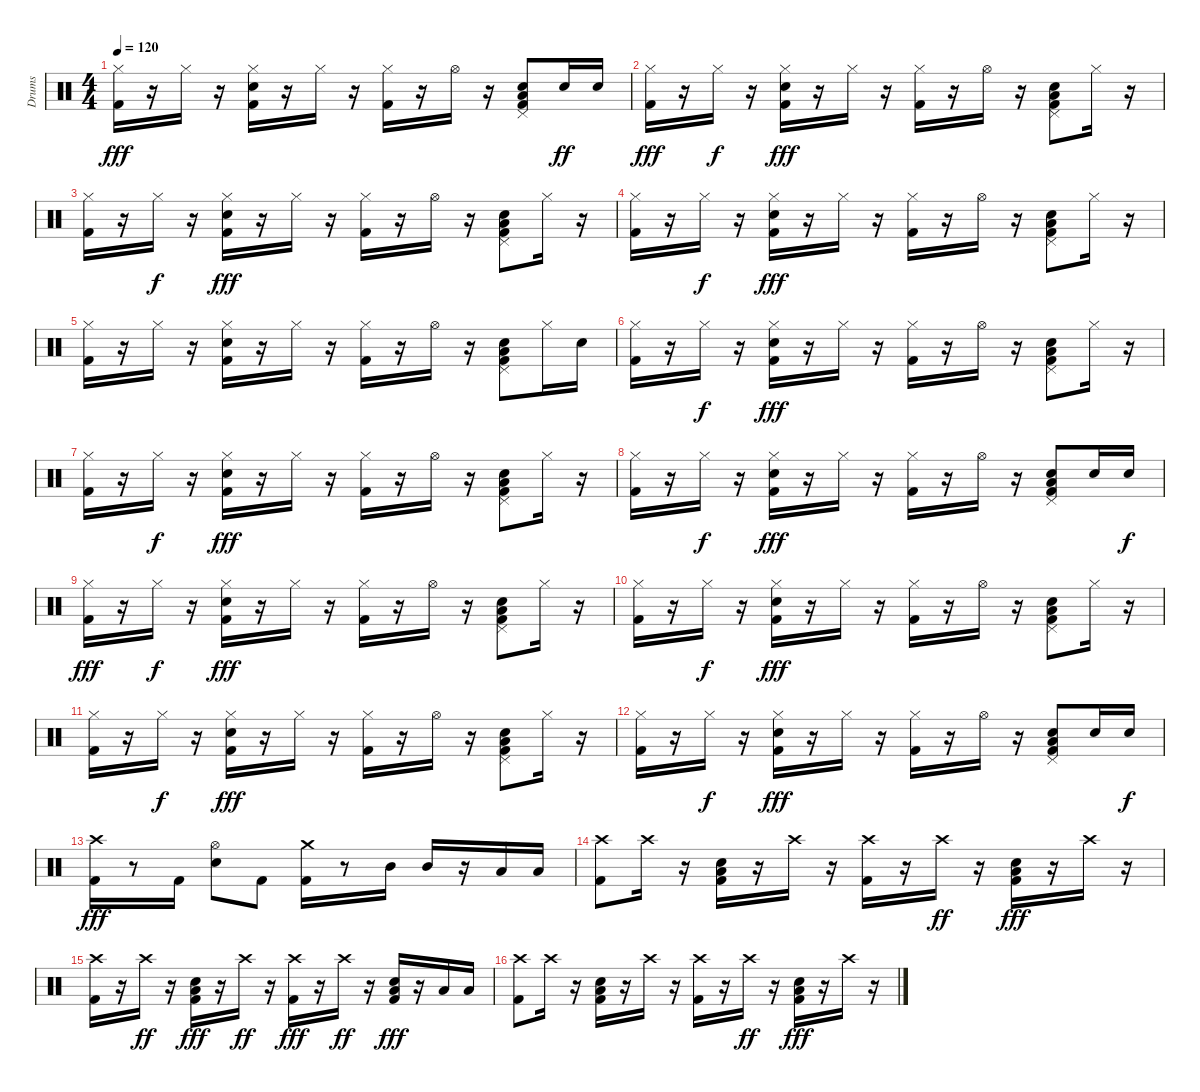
\track ("Drums" "Drums") {instrument percussion}
\staff {score}
\articulation defaults
\ts (4 4)
\tempo 120
\clef neutral
\ks c
("Kick (hit) 2" "Hi-Hat (closed)").16{dy fff} r.16 "Hi-Hat (closed)".16 r.16 ("Kick (hit) 2" "Snare (hit) 2" "Hi-Hat (closed)").16 r.16 "Hi-Hat (closed)".16 r.16 ("Hi-Hat (closed)" "Kick (hit) 2").16 r.16 "Hi-Hat (open)".16 r.16 ("Kick (hit) 2" "Pedal Hi-Hat (hit)" "Snare (hit) 2" "Low Floor Tom (hit)").8 "Snare (hit) 2".16{dy ff} "Snare (hit) 2".16 |
("Kick (hit) 2" "Hi-Hat (closed)").16{dy fff} r.16 "Hi-Hat (closed)".16{dy f} r.16 ("Kick (hit) 2" "Snare (hit) 2" "Hi-Hat (closed)").16{dy fff} r.16 "Hi-Hat (closed)".16 r.16 ("Hi-Hat (closed)" "Kick (hit) 2").16 r.16 "Hi-Hat (open)".16 r.16 ("Kick (hit) 2" "Pedal Hi-Hat (hit)" "Snare (hit) 2" "Low Floor Tom (hit)").8 "Hi-Hat (closed)".16 r.16 |
("Kick (hit) 2" "Hi-Hat (closed)").16 r.16 "Hi-Hat (closed)".16{dy f} r.16 ("Kick (hit) 2" "Snare (hit) 2" "Hi-Hat (closed)").16{dy fff} r.16 "Hi-Hat (closed)".16 r.16 ("Hi-Hat (closed)" "Kick (hit) 2").16 r.16 "Hi-Hat (open)".16 r.16 ("Kick (hit) 2" "Pedal Hi-Hat (hit)" "Snare (hit) 2" "Low Floor Tom (hit)").8 "Hi-Hat (closed)".16 r.16 |
("Kick (hit) 2" "Hi-Hat (closed)").16 r.16 "Hi-Hat (closed)".16{dy f} r.16 ("Kick (hit) 2" "Snare (hit) 2" "Hi-Hat (closed)").16{dy fff} r.16 "Hi-Hat (closed)".16 r.16 ("Hi-Hat (closed)" "Kick (hit) 2").16 r.16 "Hi-Hat (open)".16 r.16 ("Kick (hit) 2" "Pedal Hi-Hat (hit)" "Snare (hit) 2" "Low Floor Tom (hit)").8 "Hi-Hat (closed)".16 r.16 |
("Kick (hit) 2" "Hi-Hat (closed)").16 r.16 "Hi-Hat (closed)".16 r.16 ("Kick (hit) 2" "Snare (hit) 2" "Hi-Hat (closed)").16 r.16 "Hi-Hat (closed)".16 r.16 ("Hi-Hat (closed)" "Kick (hit) 2").16 r.16 "Hi-Hat (open)".16 r.16 ("Kick (hit) 2" "Pedal Hi-Hat (hit)" "Snare (hit) 2" "Low Floor Tom (hit)").8 "Hi-Hat (closed)".16 "Snare (hit) 2".16 |
("Kick (hit) 2" "Hi-Hat (closed)").16 r.16 "Hi-Hat (closed)".16{dy f} r.16 ("Kick (hit) 2" "Snare (hit) 2" "Hi-Hat (closed)").16{dy fff} r.16 "Hi-Hat (closed)".16 r.16 ("Hi-Hat (closed)" "Kick (hit) 2").16 r.16 "Hi-Hat (open)".16 r.16 ("Kick (hit) 2" "Pedal Hi-Hat (hit)" "Snare (hit) 2" "Low Floor Tom (hit)").8 "Hi-Hat (closed)".16 r.16 |
("Kick (hit) 2" "Hi-Hat (closed)").16 r.16 "Hi-Hat (closed)".16{dy f} r.16 ("Kick (hit) 2" "Snare (hit) 2" "Hi-Hat (closed)").16{dy fff} r.16 "Hi-Hat (closed)".16 r.16 ("Hi-Hat (closed)" "Kick (hit) 2").16 r.16 "Hi-Hat (open)".16 r.16 ("Kick (hit) 2" "Pedal Hi-Hat (hit)" "Snare (hit) 2" "Low Floor Tom (hit)").8 "Hi-Hat (closed)".16 r.16 |
("Kick (hit) 2" "Hi-Hat (closed)").16 r.16 "Hi-Hat (closed)".16{dy f} r.16 ("Kick (hit) 2" "Snare (hit) 2" "Hi-Hat (closed)").16{dy fff} r.16 "Hi-Hat (closed)".16 r.16 ("Hi-Hat (closed)" "Kick (hit) 2").16 r.16 "Hi-Hat (open)".16 r.16 ("Kick (hit) 2" "Pedal Hi-Hat (hit)" "Snare (hit) 2" "Low Floor Tom (hit)").8 "Snare (hit) 2".16 "Snare (hit) 2".16{dy f} |
("Kick (hit) 2" "Hi-Hat (closed)").16{dy fff} r.16 "Hi-Hat (closed)".16{dy f} r.16 ("Kick (hit) 2" "Snare (hit) 2" "Hi-Hat (closed)").16{dy fff} r.16 "Hi-Hat (closed)".16 r.16 ("Hi-Hat (closed)" "Kick (hit) 2").16 r.16 "Hi-Hat (open)".16 r.16 ("Kick (hit) 2" "Pedal Hi-Hat (hit)" "Snare (hit) 2" "Low Floor Tom (hit)").8 "Hi-Hat (closed)".16 r.16 |
("Kick (hit) 2" "Hi-Hat (closed)").16 r.16 "Hi-Hat (closed)".16{dy f} r.16 ("Kick (hit) 2" "Snare (hit) 2" "Hi-Hat (closed)").16{dy fff} r.16 "Hi-Hat (closed)".16 r.16 ("Hi-Hat (closed)" "Kick (hit) 2").16 r.16 "Hi-Hat (open)".16 r.16 ("Kick (hit) 2" "Pedal Hi-Hat (hit)" "Snare (hit) 2" "Low Floor Tom (hit)").8 "Hi-Hat (closed)".16 r.16 |
("Kick (hit) 2" "Hi-Hat (closed)").16 r.16 "Hi-Hat (closed)".16{dy f} r.16 ("Kick (hit) 2" "Snare (hit) 2" "Hi-Hat (closed)").16{dy fff} r.16 "Hi-Hat (closed)".16 r.16 ("Hi-Hat (closed)" "Kick (hit) 2").16 r.16 "Hi-Hat (open)".16 r.16 ("Kick (hit) 2" "Pedal Hi-Hat (hit)" "Snare (hit) 2" "Low Floor Tom (hit)").8 "Hi-Hat (closed)".16 r.16 |
("Kick (hit) 2" "Hi-Hat (closed)").16 r.16 "Hi-Hat (closed)".16{dy f} r.16 ("Kick (hit) 2" "Snare (hit) 2" "Hi-Hat (closed)").16{dy fff} r.16 "Hi-Hat (closed)".16 r.16 ("Hi-Hat (closed)" "Kick (hit) 2").16 r.16 "Hi-Hat (open)".16 r.16 ("Kick (hit) 2" "Pedal Hi-Hat (hit)" "Snare (hit) 2" "Low Floor Tom (hit)").8 "Snare (hit) 2".16 "Snare (hit) 2".16{dy f} |
("Crash high (hit)" "Kick (hit) 2").16{dy fff} r.8 "Kick (hit) 2".16 ("Hi-Hat (open)" "Snare (hit) 2").8 "Kick (hit) 2".8 ("Kick (hit) 2" "Crash medium (hit)").16 r.8 "Mid Tom (hit)".16 "Mid Tom (hit)".16 r.16 "Low Tom (hit)".16 "Low Tom (hit)".16 |
("Kick (hit) 2" "Crash high (hit)").8 "Crash high (hit)".16 r.16 ("Kick (hit) 2" "Snare (hit) 2" "Low Floor Tom (hit)").16 r.16 "Crash high (hit)".16 r.16 ("Kick (hit) 2" "Crash high (hit)").16 r.16 "Crash high (hit)".16{dy ff} r.16 ("Kick (hit) 2" "Snare (hit) 2" "Low Floor Tom (hit)").16{dy fff} r.16 "Crash high (hit)".16 r.16 |
("Crash high (hit)" "Kick (hit) 2").16 r.16 "Crash high (hit)".16{dy ff} r.16 ("Kick (hit) 2" "Snare (hit) 2" "Low Floor Tom (hit)").16{dy fff} r.16 "Crash high (hit)".16{dy ff} r.16 ("Kick (hit) 2" "Crash high (hit)").16{dy fff} r.16 "Crash high (hit)".16{dy ff} r.16 ("Kick (hit) 2" "Snare (hit) 2" "Low Floor Tom (hit)").16{dy fff} r.16 "Low Tom (hit)".16 "Low Tom (hit)".16 |
("Kick (hit) 2" "Crash high (hit)").8 "Crash high (hit)".16 r.16 ("Kick (hit) 2" "Snare (hit) 2" "Low Floor Tom (hit)").16 r.16 "Crash high (hit)".16 r.16 ("Kick (hit) 2" "Crash high (hit)").16 r.16 "Crash high (hit)".16{dy ff} r.16 ("Kick (hit) 2" "Snare (hit) 2" "Low Floor Tom (hit)").16{dy fff} r.16 "Crash high (hit)".16 r.16
